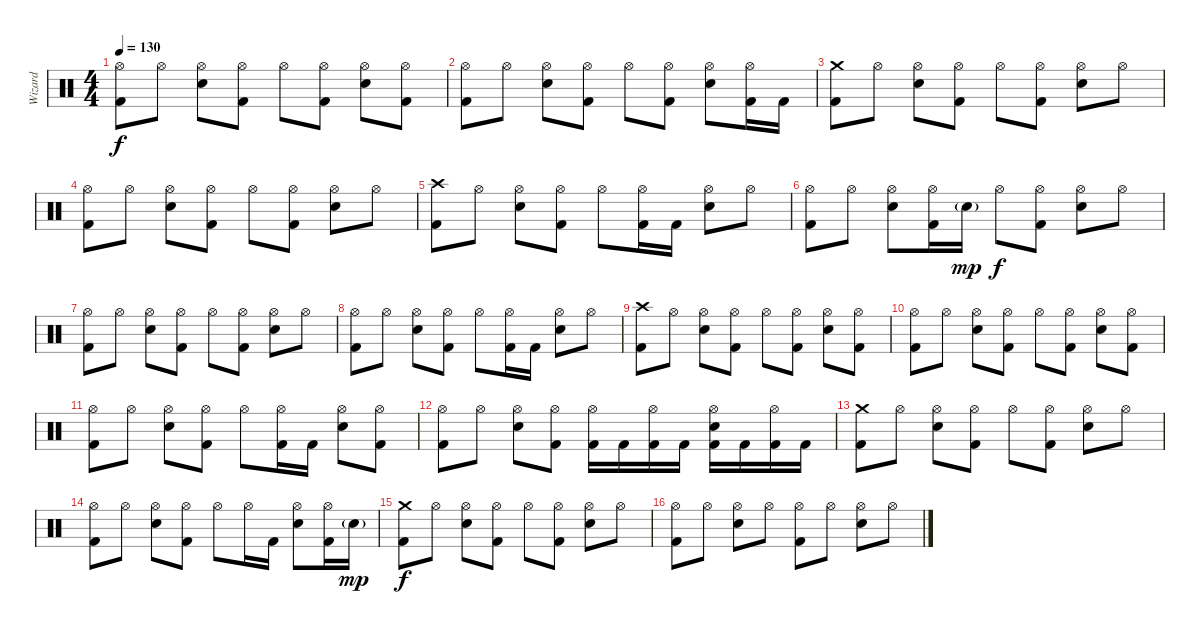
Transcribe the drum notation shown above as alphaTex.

\track ("Wizard" "Wizard") {instrument percussion}
\staff {score}
\articulation defaults
\ts (4 4)
\tempo 130
\clef neutral
\ks c
("Hi-Hat (open)" "Kick (hit) 2").8{dy f} "Hi-Hat (open)".8 ("Hi-Hat (open)" "Snare (hit) 2").8 ("Hi-Hat (open)" "Kick (hit) 2").8 "Hi-Hat (open)".8 ("Hi-Hat (open)" "Kick (hit) 2").8 ("Hi-Hat (open)" "Snare (hit) 2").8 ("Hi-Hat (open)" "Kick (hit) 2").8 |
("Hi-Hat (open)" "Kick (hit) 2").8 "Hi-Hat (open)".8 ("Hi-Hat (open)" "Snare (hit) 2").8 ("Hi-Hat (open)" "Kick (hit) 2").8 "Hi-Hat (open)".8 ("Hi-Hat (open)" "Kick (hit) 2").8 ("Hi-Hat (open)" "Snare (hit) 2").8 ("Hi-Hat (open)" "Kick (hit) 2").16 "Kick (hit) 2".16 |
("Crash medium (hit)" "Kick (hit) 2").8 "Hi-Hat (open)".8 ("Hi-Hat (open)" "Snare (hit) 2").8 ("Hi-Hat (open)" "Kick (hit) 2").8 "Hi-Hat (open)".8 ("Hi-Hat (open)" "Kick (hit) 2").8 ("Hi-Hat (open)" "Snare (hit) 2").8 "Hi-Hat (open)".8 |
("Hi-Hat (open)" "Kick (hit) 2").8 "Hi-Hat (open)".8 ("Hi-Hat (open)" "Snare (hit) 2").8 ("Hi-Hat (open)" "Kick (hit) 2").8 "Hi-Hat (open)".8 ("Hi-Hat (open)" "Kick (hit) 2").8 ("Hi-Hat (open)" "Snare (hit) 2").8 "Hi-Hat (open)".8 |
("Crash high (hit)" "Kick (hit) 2").8 "Hi-Hat (open)".8 ("Hi-Hat (open)" "Snare (hit) 2").8 ("Hi-Hat (open)" "Kick (hit) 2").8 "Hi-Hat (open)".8 ("Hi-Hat (open)" "Kick (hit) 2").16 "Kick (hit) 2".16 ("Hi-Hat (open)" "Snare (hit) 2").8 "Hi-Hat (open)".8 |
("Hi-Hat (open)" "Kick (hit) 2").8 "Hi-Hat (open)".8 ("Hi-Hat (open)" "Snare (hit) 2").8 ("Hi-Hat (open)" "Kick (hit) 2").16 "Snare (hit) 2"{g}.16{dy mp} "Hi-Hat (open)".8{dy f} ("Hi-Hat (open)" "Kick (hit) 2").8 ("Hi-Hat (open)" "Snare (hit) 2").8 "Hi-Hat (open)".8 |
("Hi-Hat (open)" "Kick (hit) 2").8 "Hi-Hat (open)".8 ("Hi-Hat (open)" "Snare (hit) 2").8 ("Hi-Hat (open)" "Kick (hit) 2").8 "Hi-Hat (open)".8 ("Hi-Hat (open)" "Kick (hit) 2").8 ("Hi-Hat (open)" "Snare (hit) 2").8 "Hi-Hat (open)".8 |
("Hi-Hat (open)" "Kick (hit) 2").8 "Hi-Hat (open)".8 ("Hi-Hat (open)" "Snare (hit) 2").8 ("Hi-Hat (open)" "Kick (hit) 2").8 "Hi-Hat (open)".8 ("Hi-Hat (open)" "Kick (hit) 2").16 "Kick (hit) 2".16 ("Hi-Hat (open)" "Snare (hit) 2").8 "Hi-Hat (open)".8 |
("Crash high (hit)" "Kick (hit) 2").8 "Hi-Hat (open)".8 ("Hi-Hat (open)" "Snare (hit) 2").8 ("Hi-Hat (open)" "Kick (hit) 2").8 "Hi-Hat (open)".8 ("Hi-Hat (open)" "Kick (hit) 2").8 ("Hi-Hat (open)" "Snare (hit) 2").8 ("Hi-Hat (open)" "Kick (hit) 2").8 |
("Hi-Hat (open)" "Kick (hit) 2").8 "Hi-Hat (open)".8 ("Hi-Hat (open)" "Snare (hit) 2").8 ("Hi-Hat (open)" "Kick (hit) 2").8 "Hi-Hat (open)".8 ("Hi-Hat (open)" "Kick (hit) 2").8 ("Hi-Hat (open)" "Snare (hit) 2").8 ("Hi-Hat (open)" "Kick (hit) 2").8 |
("Hi-Hat (open)" "Kick (hit) 2").8 "Hi-Hat (open)".8 ("Hi-Hat (open)" "Snare (hit) 2").8 ("Hi-Hat (open)" "Kick (hit) 2").8 "Hi-Hat (open)".8 ("Hi-Hat (open)" "Kick (hit) 2").16 "Kick (hit) 2".16 ("Hi-Hat (open)" "Snare (hit) 2").8 ("Hi-Hat (open)" "Kick (hit) 2").8 |
("Hi-Hat (open)" "Kick (hit) 2").8 "Hi-Hat (open)".8 ("Hi-Hat (open)" "Snare (hit) 2").8 ("Hi-Hat (open)" "Kick (hit) 2").8 ("Hi-Hat (open)" "Kick (hit) 2").16 "Kick (hit) 2".16 ("Hi-Hat (open)" "Kick (hit) 2").16 "Kick (hit) 2".16 ("Hi-Hat (open)" "Snare (hit) 2" "Kick (hit) 2").16 "Kick (hit) 2".16 ("Hi-Hat (open)" "Kick (hit) 2").16 "Kick (hit) 2".16 |
("Crash medium (hit)" "Kick (hit) 2").8 "Hi-Hat (open)".8 ("Hi-Hat (open)" "Snare (hit) 2").8 ("Hi-Hat (open)" "Kick (hit) 2").8 "Hi-Hat (open)".8 ("Hi-Hat (open)" "Kick (hit) 2").8 ("Hi-Hat (open)" "Snare (hit) 2").8 "Hi-Hat (open)".8 |
("Hi-Hat (open)" "Kick (hit) 2").8 "Hi-Hat (open)".8 ("Hi-Hat (open)" "Snare (hit) 2").8 ("Hi-Hat (open)" "Kick (hit) 2").8 "Hi-Hat (open)".8 "Hi-Hat (open)".16 "Kick (hit) 2".16 ("Hi-Hat (open)" "Snare (hit) 2").8 ("Hi-Hat (open)" "Kick (hit) 2").16 "Snare (hit) 2"{g}.16{dy mp} |
("Crash medium (hit)" "Kick (hit) 2").8{dy f} "Hi-Hat (open)".8 ("Hi-Hat (open)" "Snare (hit) 2").8 ("Hi-Hat (open)" "Kick (hit) 2").8 "Hi-Hat (open)".8 ("Hi-Hat (open)" "Kick (hit) 2").8 ("Hi-Hat (open)" "Snare (hit) 2").8 "Hi-Hat (open)".8 |
("Hi-Hat (open)" "Kick (hit) 2").8 "Hi-Hat (open)".8 ("Hi-Hat (open)" "Snare (hit) 2").8 "Hi-Hat (open)".8 ("Hi-Hat (open)" "Kick (hit) 2").8 "Hi-Hat (open)".8 ("Hi-Hat (open)" "Snare (hit) 2").8 "Hi-Hat (open)".8
